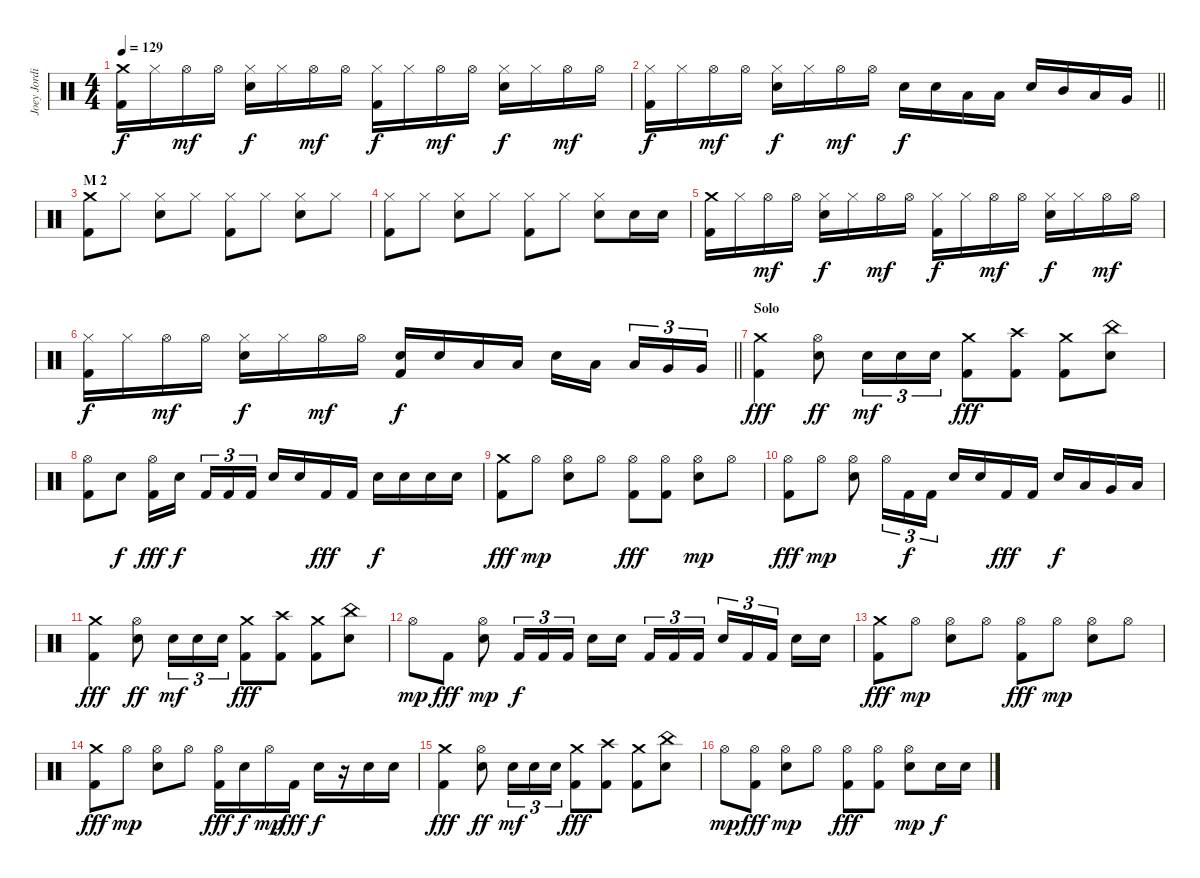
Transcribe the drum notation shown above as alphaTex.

\track ("Joey Jordison" "Joey Jordi") {instrument percussion}
\staff {score}
\articulation defaults
\ts (4 4)
\tempo 129
\clef neutral
\ks c
("Crash medium (hit)" "Kick (hit) 2").16{dy f} "Hi-Hat (closed)".16 "Hi-Hat (open)".16{dy mf} "Hi-Hat (open)".16 ("Hi-Hat (closed)" "Electric Snare (hit)").16{dy f} "Hi-Hat (closed)".16 "Hi-Hat (open)".16{dy mf} "Hi-Hat (open)".16 ("Hi-Hat (closed)" "Kick (hit) 2").16{dy f} "Hi-Hat (closed)".16 "Hi-Hat (open)".16{dy mf} "Hi-Hat (open)".16 ("Hi-Hat (closed)" "Electric Snare (hit)").16{dy f} "Hi-Hat (closed)".16 "Hi-Hat (open)".16{dy mf} "Hi-Hat (open)".16 |
\barLineRight lightlight
("Hi-Hat (closed)" "Kick (hit) 2").16{dy f} "Hi-Hat (closed)".16 "Hi-Hat (open)".16{dy mf} "Hi-Hat (open)".16 ("Hi-Hat (closed)" "Electric Snare (hit)").16{dy f} "Hi-Hat (closed)".16 "Hi-Hat (open)".16{dy mf} "Hi-Hat (open)".16 "Electric Snare (hit)".16{dy f} "Electric Snare (hit)".16 "Low Tom (hit)".16 "Low Tom (hit)".16 "Electric Snare (hit)".16 "Mid Tom (hit)".16 "Low Tom (hit)".16 "Very Low Tom (hit)".16 |
\section ("" "M 2")
("Crash medium (hit)" "Kick (hit) 2").8 "Hi-Hat (closed)".8 ("Hi-Hat (closed)" "Electric Snare (hit)").8 "Hi-Hat (closed)".8 ("Hi-Hat (closed)" "Kick (hit) 2").8 "Hi-Hat (closed)".8 ("Hi-Hat (closed)" "Electric Snare (hit)").8 "Hi-Hat (closed)".8 |
("Hi-Hat (closed)" "Kick (hit) 2").8 "Hi-Hat (closed)".8 ("Hi-Hat (closed)" "Electric Snare (hit)").8 "Hi-Hat (closed)".8 ("Hi-Hat (closed)" "Kick (hit) 2").8 "Hi-Hat (closed)".8 ("Hi-Hat (closed)" "Electric Snare (hit)").8 "Electric Snare (hit)".16 "Electric Snare (hit)".16 |
("Crash medium (hit)" "Kick (hit) 2").16 "Hi-Hat (closed)".16 "Hi-Hat (open)".16{dy mf} "Hi-Hat (open)".16 ("Hi-Hat (closed)" "Electric Snare (hit)").16{dy f} "Hi-Hat (closed)".16 "Hi-Hat (open)".16{dy mf} "Hi-Hat (open)".16 ("Hi-Hat (closed)" "Kick (hit) 2").16{dy f} "Hi-Hat (closed)".16 "Hi-Hat (open)".16{dy mf} "Hi-Hat (open)".16 ("Hi-Hat (closed)" "Electric Snare (hit)").16{dy f} "Hi-Hat (closed)".16 "Hi-Hat (open)".16{dy mf} "Hi-Hat (open)".16 |
\barLineRight lightlight
("Hi-Hat (closed)" "Kick (hit) 2").16{dy f} "Hi-Hat (closed)".16 "Hi-Hat (open)".16{dy mf} "Hi-Hat (open)".16 ("Hi-Hat (closed)" "Electric Snare (hit)").16{dy f} "Hi-Hat (closed)".16 "Hi-Hat (open)".16{dy mf} "Hi-Hat (open)".16 ("Electric Snare (hit)" "Kick (hit) 2").16{dy f} "Electric Snare (hit)".16 "Low Tom (hit)".16 "Low Tom (hit)".16 "Electric Snare (hit)".16 "Low Tom (hit)".16{beam splitsecondary} "Low Tom (hit)".16{tu (3 2)} "Very Low Tom (hit)".16{tu (3 2)} "Very Low Tom (hit)".16{tu (3 2)} |
\section ("" "Solo")
("Crash medium (hit)" "Kick (hit) 2").4{dy fff} ("Hi-Hat (open)" "Electric Snare (hit)").8{dy ff} "Electric Snare (hit)".16{tu (3 2) dy mf} "Electric Snare (hit)".16{tu (3 2)} "Electric Snare (hit)".16{tu (3 2)} ("Crash medium (hit)" "Kick (hit) 2").8{dy fff} ("Crash high (hit)" "Kick (hit) 2").8 ("Crash medium (hit)" "Kick (hit) 2").8 ("China (hit)" "Electric Snare (hit)").8 |
("Hi-Hat (open)" "Kick (hit) 2").8 "Electric Snare (hit)".8{dy f} ("Hi-Hat (open)" "Kick (hit) 2").16{dy fff} "Electric Snare (hit)".16{dy f beam splitsecondary} "Kick (hit) 2".16{tu (3 2)} "Kick (hit) 2".16{tu (3 2)} "Kick (hit) 2".16{tu (3 2)} "Electric Snare (hit)".16 "Electric Snare (hit)".16 "Kick (hit) 2".16{dy fff} "Kick (hit) 2".16 "Electric Snare (hit)".16{dy f} "Electric Snare (hit)".16 "Electric Snare (hit)".16 "Electric Snare (hit)".16 |
("Crash medium (hit)" "Kick (hit) 2").8{dy fff} "Hi-Hat (open)".8{dy mp} ("Hi-Hat (open)" "Electric Snare (hit)").8 "Hi-Hat (open)".8 ("Hi-Hat (open)" "Kick (hit) 2").8{dy fff} ("Hi-Hat (open)" "Kick (hit) 2").8 ("Hi-Hat (open)" "Electric Snare (hit)").8{dy mp} "Hi-Hat (open)".8 |
("Hi-Hat (open)" "Kick (hit) 2").8{dy fff} "Hi-Hat (open)".8{dy mp} ("Hi-Hat (open)" "Electric Snare (hit)").8 "Hi-Hat (open)".16{tu (3 2)} "Kick (hit) 2".16{tu (3 2) dy f} "Kick (hit) 2".16{tu (3 2)} "Electric Snare (hit)".16 "Electric Snare (hit)".16 "Kick (hit) 2".16{dy fff} "Kick (hit) 2".16 "Electric Snare (hit)".16{dy f} "Low Tom (hit)".16 "Very Low Tom (hit)".16 "Low Floor Tom (hit)".16 |
("Crash medium (hit)" "Kick (hit) 2").4{dy fff} ("Hi-Hat (open)" "Electric Snare (hit)").8{dy ff} "Electric Snare (hit)".16{tu (3 2) dy mf} "Electric Snare (hit)".16{tu (3 2)} "Electric Snare (hit)".16{tu (3 2)} ("Crash medium (hit)" "Kick (hit) 2").8{dy fff} ("Crash high (hit)" "Kick (hit) 2").8 ("Crash medium (hit)" "Kick (hit) 2").8 ("China (hit)" "Electric Snare (hit)").8 |
"Hi-Hat (open)".8{dy mp} "Kick (hit) 2".8{dy fff} ("Hi-Hat (open)" "Electric Snare (hit)").8{dy mp} "Kick (hit) 2".16{tu (3 2) dy f} "Kick (hit) 2".16{tu (3 2)} "Kick (hit) 2".16{tu (3 2)} "Electric Snare (hit)".16 "Electric Snare (hit)".16{beam splitsecondary} "Kick (hit) 2".16{tu (3 2)} "Kick (hit) 2".16{tu (3 2)} "Kick (hit) 2".16{tu (3 2)} "Electric Snare (hit)".16{tu (3 2)} "Kick (hit) 2".16{tu (3 2)} "Kick (hit) 2".16{tu (3 2) beam splitsecondary} "Electric Snare (hit)".16 "Electric Snare (hit)".16 |
("Crash medium (hit)" "Kick (hit) 2").8{dy fff} "Hi-Hat (open)".8{dy mp} ("Hi-Hat (open)" "Electric Snare (hit)").8 "Hi-Hat (open)".8 ("Hi-Hat (open)" "Kick (hit) 2").8{dy fff} "Hi-Hat (open)".8{dy mp} ("Hi-Hat (open)" "Electric Snare (hit)").8 "Hi-Hat (open)".8 |
("Crash medium (hit)" "Kick (hit) 2").8{dy fff} "Hi-Hat (open)".8{dy mp} ("Hi-Hat (open)" "Electric Snare (hit)").8 "Hi-Hat (open)".8 ("Hi-Hat (open)" "Kick (hit) 2").16{dy fff} "Electric Snare (hit)".16{dy f} "Hi-Hat (open)".16{dy mp} "Kick (hit) 2".16{dy fff} "Electric Snare (hit)".16{dy f} r.16 "Electric Snare (hit)".16 "Electric Snare (hit)".16 |
("Crash medium (hit)" "Kick (hit) 2").4{dy fff} ("Hi-Hat (open)" "Electric Snare (hit)").8{dy ff} "Electric Snare (hit)".16{tu (3 2) dy mf} "Electric Snare (hit)".16{tu (3 2)} "Electric Snare (hit)".16{tu (3 2)} ("Crash medium (hit)" "Kick (hit) 2").8{dy fff} ("Crash high (hit)" "Kick (hit) 2").8 ("Crash medium (hit)" "Kick (hit) 2").8 ("China (hit)" "Electric Snare (hit)").8 |
"Hi-Hat (open)".8{dy mp} ("Hi-Hat (open)" "Kick (hit) 2").8{dy fff} ("Hi-Hat (open)" "Electric Snare (hit)").8{dy mp} "Hi-Hat (open)".8 ("Hi-Hat (open)" "Kick (hit) 2").8{dy fff} ("Hi-Hat (open)" "Kick (hit) 2").8 ("Hi-Hat (open)" "Electric Snare (hit)").8{dy mp} "Electric Snare (hit)".16{dy f} "Electric Snare (hit)".16
